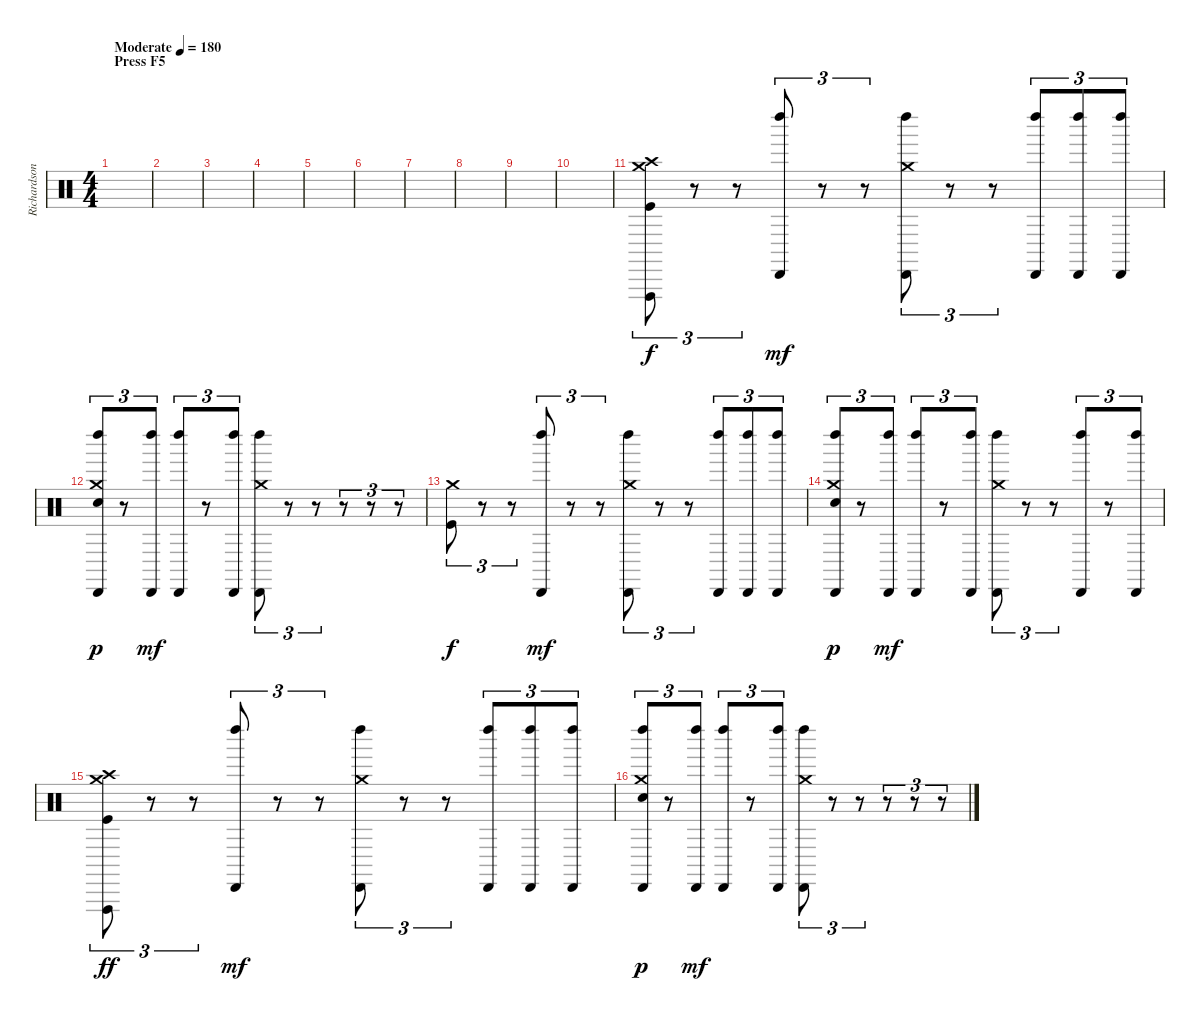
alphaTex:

\track ("Richardson" "Richardson") {instrument percussion}
\staff {score}
\articulation defaults
\ts (4 4)
\section ("" "Press F5")
\tempo (180 "Moderate")
\clef neutral
\ks c
|
|
|
|
|
|
|
|
|
|
("Crash medium (hit)" "Crash high (hit)" "Vibraslap (hit)" "Kick (hit)").8{tu (3 2)} r.8{tu (3 2)} r.8{tu (3 2)} ("Cabasa (hit)" "Left Maraca (hit)").8{tu (3 2) dy mf} r.8{tu (3 2)} r.8{tu (3 2)} ("Crash medium (hit)" "Cabasa (hit)" "Left Maraca (hit)").8{tu (3 2)} r.8{tu (3 2)} r.8{tu (3 2)} ("Cabasa (hit)" "Left Maraca (hit)").8{tu (3 2)} ("Cabasa (hit)" "Left Maraca (hit)").8{tu (3 2)} ("Cabasa (hit)" "Left Maraca (hit)").8{tu (3 2)} |
("Crash medium (hit)" "Left Maraca (hit)" "Electric Snare (hit)" "Cabasa (hit)").8{tu (3 2) dy p} r.8{tu (3 2)} ("Cabasa (hit)" "Left Maraca (hit)").8{tu (3 2) dy mf} ("Cabasa (hit)" "Left Maraca (hit)").8{tu (3 2)} r.8{tu (3 2)} ("Cabasa (hit)" "Left Maraca (hit)").8{tu (3 2)} ("Crash medium (hit)" "Cabasa (hit)" "Left Maraca (hit)").8{tu (3 2)} r.8{tu (3 2)} r.8{tu (3 2)} r.8{tu (3 2)} r.8{tu (3 2)} r.8{tu (3 2)} |
("Crash medium (hit)" "Kick (hit)").8{tu (3 2) dy f} r.8{tu (3 2)} r.8{tu (3 2)} ("Cabasa (hit)" "Left Maraca (hit)").8{tu (3 2) dy mf} r.8{tu (3 2)} r.8{tu (3 2)} ("Crash medium (hit)" "Cabasa (hit)" "Left Maraca (hit)").8{tu (3 2)} r.8{tu (3 2)} r.8{tu (3 2)} ("Cabasa (hit)" "Left Maraca (hit)").8{tu (3 2)} ("Cabasa (hit)" "Left Maraca (hit)").8{tu (3 2)} ("Cabasa (hit)" "Left Maraca (hit)").8{tu (3 2)} |
("Crash medium (hit)" "Left Maraca (hit)" "Electric Snare (hit)" "Cabasa (hit)").8{tu (3 2) dy p} r.8{tu (3 2)} ("Cabasa (hit)" "Left Maraca (hit)").8{tu (3 2) dy mf} ("Cabasa (hit)" "Left Maraca (hit)").8{tu (3 2)} r.8{tu (3 2)} ("Cabasa (hit)" "Left Maraca (hit)").8{tu (3 2)} ("Crash medium (hit)" "Cabasa (hit)" "Left Maraca (hit)").8{tu (3 2)} r.8{tu (3 2)} r.8{tu (3 2)} ("Cabasa (hit)" "Left Maraca (hit)").8{tu (3 2)} r.8{tu (3 2)} ("Cabasa (hit)" "Left Maraca (hit)").8{tu (3 2)} |
("Crash medium (hit)" "Crash high (hit)" "Vibraslap (hit)" "Kick (hit)").8{tu (3 2) dy ff} r.8{tu (3 2)} r.8{tu (3 2)} ("Cabasa (hit)" "Left Maraca (hit)").8{tu (3 2) dy mf} r.8{tu (3 2)} r.8{tu (3 2)} ("Crash medium (hit)" "Cabasa (hit)" "Left Maraca (hit)").8{tu (3 2)} r.8{tu (3 2)} r.8{tu (3 2)} ("Cabasa (hit)" "Left Maraca (hit)").8{tu (3 2)} ("Cabasa (hit)" "Left Maraca (hit)").8{tu (3 2)} ("Cabasa (hit)" "Left Maraca (hit)").8{tu (3 2)} |
("Crash medium (hit)" "Left Maraca (hit)" "Electric Snare (hit)" "Cabasa (hit)").8{tu (3 2) dy p} r.8{tu (3 2)} ("Cabasa (hit)" "Left Maraca (hit)").8{tu (3 2) dy mf} ("Cabasa (hit)" "Left Maraca (hit)").8{tu (3 2)} r.8{tu (3 2)} ("Cabasa (hit)" "Left Maraca (hit)").8{tu (3 2)} ("Crash medium (hit)" "Cabasa (hit)" "Left Maraca (hit)").8{tu (3 2)} r.8{tu (3 2)} r.8{tu (3 2)} r.8{tu (3 2)} r.8{tu (3 2)} r.8{tu (3 2)}
